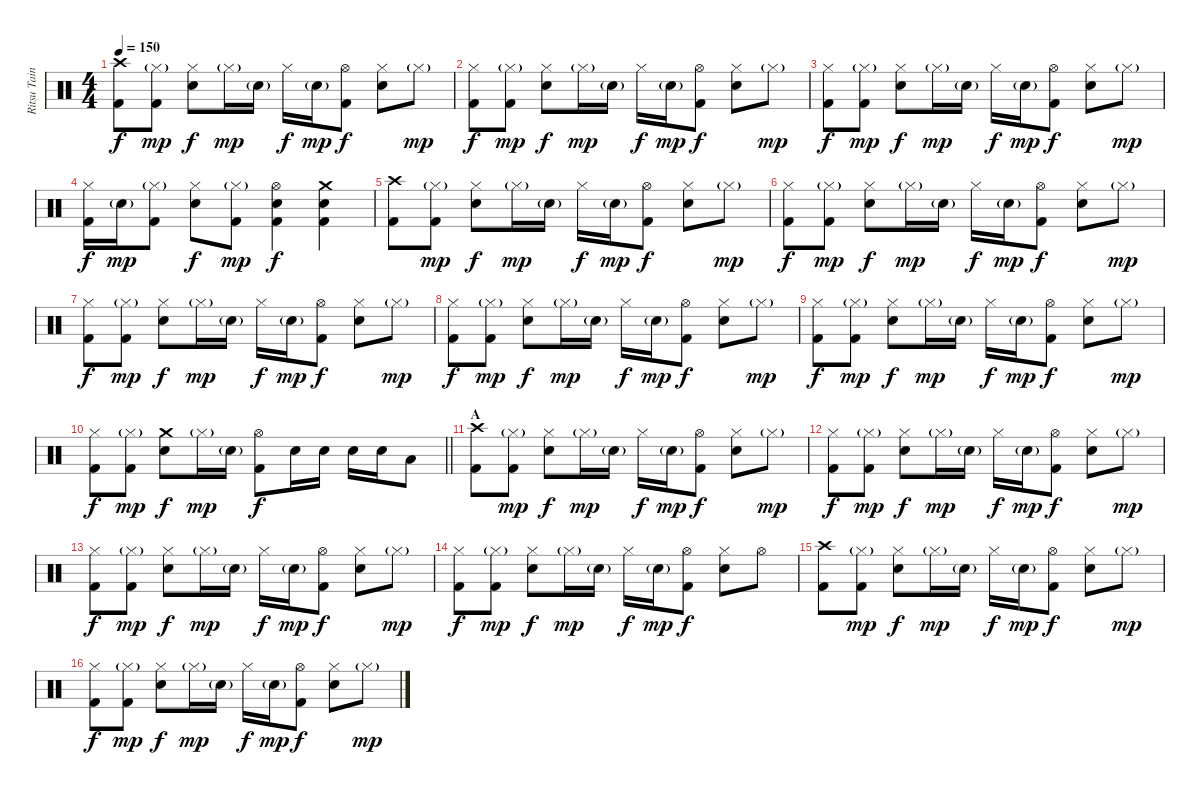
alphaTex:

\track ("Ritsu Tainaka" "Ritsu Tain") {instrument percussion}
\staff {score}
\articulation defaults
\ts (4 4)
\tempo 150
\clef neutral
\ks c
("Crash high (hit)" "Kick (hit) 2").8{dy f} ("Hi-Hat (closed)"{g} "Kick (hit) 2").8{dy mp} ("Hi-Hat (closed)" "Electric Snare (hit)").8{dy f} "Hi-Hat (closed)"{g}.16{dy mp} "Electric Snare (hit)"{g}.16 "Hi-Hat (closed)".16{dy f} "Electric Snare (hit)"{g}.16{dy mp} ("Hi-Hat (open)" "Kick (hit) 2").8{dy f} ("Hi-Hat (closed)" "Electric Snare (hit)").8 "Hi-Hat (closed)"{g}.8{dy mp} |
("Hi-Hat (closed)" "Kick (hit) 2").8{dy f} ("Hi-Hat (closed)"{g} "Kick (hit) 2").8{dy mp} ("Hi-Hat (closed)" "Electric Snare (hit)").8{dy f} "Hi-Hat (closed)"{g}.16{dy mp} "Electric Snare (hit)"{g}.16 "Hi-Hat (closed)".16{dy f} "Electric Snare (hit)"{g}.16{dy mp} ("Hi-Hat (open)" "Kick (hit) 2").8{dy f} ("Hi-Hat (closed)" "Electric Snare (hit)").8 "Hi-Hat (closed)"{g}.8{dy mp} |
("Hi-Hat (closed)" "Kick (hit) 2").8{dy f} ("Hi-Hat (closed)"{g} "Kick (hit) 2").8{dy mp} ("Hi-Hat (closed)" "Electric Snare (hit)").8{dy f} "Hi-Hat (closed)"{g}.16{dy mp} "Electric Snare (hit)"{g}.16 "Hi-Hat (closed)".16{dy f} "Electric Snare (hit)"{g}.16{dy mp} ("Hi-Hat (open)" "Kick (hit) 2").8{dy f} ("Hi-Hat (closed)" "Electric Snare (hit)").8 "Hi-Hat (closed)"{g}.8{dy mp} |
("Hi-Hat (closed)" "Kick (hit) 2").16{dy f} "Electric Snare (hit)"{g}.16{dy mp} ("Hi-Hat (closed)"{g} "Kick (hit) 2").8 ("Hi-Hat (closed)" "Electric Snare (hit)").8{dy f} ("Hi-Hat (closed)"{g} "Kick (hit) 2").8{dy mp} ("Hi-Hat (open)" "Electric Snare (hit)" "Kick (hit) 2").4{dy f} ("Crash medium (hit)" "Electric Snare (hit)" "Kick (hit) 2").4 |
("Crash high (hit)" "Kick (hit) 2").8 ("Hi-Hat (closed)"{g} "Kick (hit) 2").8{dy mp} ("Hi-Hat (closed)" "Electric Snare (hit)").8{dy f} "Hi-Hat (closed)"{g}.16{dy mp} "Electric Snare (hit)"{g}.16 "Hi-Hat (closed)".16{dy f} "Electric Snare (hit)"{g}.16{dy mp} ("Hi-Hat (open)" "Kick (hit) 2").8{dy f} ("Hi-Hat (closed)" "Electric Snare (hit)").8 "Hi-Hat (closed)"{g}.8{dy mp} |
("Hi-Hat (closed)" "Kick (hit) 2").8{dy f} ("Hi-Hat (closed)"{g} "Kick (hit) 2").8{dy mp} ("Hi-Hat (closed)" "Electric Snare (hit)").8{dy f} "Hi-Hat (closed)"{g}.16{dy mp} "Electric Snare (hit)"{g}.16 "Hi-Hat (closed)".16{dy f} "Electric Snare (hit)"{g}.16{dy mp} ("Hi-Hat (open)" "Kick (hit) 2").8{dy f} ("Hi-Hat (closed)" "Electric Snare (hit)").8 "Hi-Hat (closed)"{g}.8{dy mp} |
("Hi-Hat (closed)" "Kick (hit) 2").8{dy f} ("Hi-Hat (closed)"{g} "Kick (hit) 2").8{dy mp} ("Hi-Hat (closed)" "Electric Snare (hit)").8{dy f} "Hi-Hat (closed)"{g}.16{dy mp} "Electric Snare (hit)"{g}.16 "Hi-Hat (closed)".16{dy f} "Electric Snare (hit)"{g}.16{dy mp} ("Hi-Hat (open)" "Kick (hit) 2").8{dy f} ("Hi-Hat (closed)" "Electric Snare (hit)").8 "Hi-Hat (closed)"{g}.8{dy mp} |
("Hi-Hat (closed)" "Kick (hit) 2").8{dy f} ("Hi-Hat (closed)"{g} "Kick (hit) 2").8{dy mp} ("Hi-Hat (closed)" "Electric Snare (hit)").8{dy f} "Hi-Hat (closed)"{g}.16{dy mp} "Electric Snare (hit)"{g}.16 "Hi-Hat (closed)".16{dy f} "Electric Snare (hit)"{g}.16{dy mp} ("Hi-Hat (open)" "Kick (hit) 2").8{dy f} ("Hi-Hat (closed)" "Electric Snare (hit)").8 "Hi-Hat (closed)"{g}.8{dy mp} |
("Hi-Hat (closed)" "Kick (hit) 2").8{dy f} ("Hi-Hat (closed)"{g} "Kick (hit) 2").8{dy mp} ("Hi-Hat (closed)" "Electric Snare (hit)").8{dy f} "Hi-Hat (closed)"{g}.16{dy mp} "Electric Snare (hit)"{g}.16 "Hi-Hat (closed)".16{dy f} "Electric Snare (hit)"{g}.16{dy mp} ("Hi-Hat (open)" "Kick (hit) 2").8{dy f} ("Hi-Hat (closed)" "Electric Snare (hit)").8 "Hi-Hat (closed)"{g}.8{dy mp} |
\barLineRight lightlight
("Hi-Hat (closed)" "Kick (hit) 2").8{dy f} ("Hi-Hat (closed)"{g} "Kick (hit) 2").8{dy mp} ("Crash medium (hit)" "Electric Snare (hit)").8{dy f} "Hi-Hat (closed)"{g}.16{dy mp} "Electric Snare (hit)"{g}.16 ("Hi-Hat (open)" "Kick (hit) 2").8{dy f} "Electric Snare (hit)".16 "Electric Snare (hit)".16 "Electric Snare (hit)".16 "Electric Snare (hit)".16 "Low Tom (hit)".8 |
\section ("" "A")
("Crash high (hit)" "Kick (hit) 2").8 ("Hi-Hat (closed)"{g} "Kick (hit) 2").8{dy mp} ("Hi-Hat (closed)" "Electric Snare (hit)").8{dy f} "Hi-Hat (closed)"{g}.16{dy mp} "Electric Snare (hit)"{g}.16 "Hi-Hat (closed)".16{dy f} "Electric Snare (hit)"{g}.16{dy mp} ("Hi-Hat (open)" "Kick (hit) 2").8{dy f} ("Hi-Hat (closed)" "Electric Snare (hit)").8 "Hi-Hat (closed)"{g}.8{dy mp} |
("Hi-Hat (closed)" "Kick (hit) 2").8{dy f} ("Hi-Hat (closed)"{g} "Kick (hit) 2").8{dy mp} ("Hi-Hat (closed)" "Electric Snare (hit)").8{dy f} "Hi-Hat (closed)"{g}.16{dy mp} "Electric Snare (hit)"{g}.16 "Hi-Hat (closed)".16{dy f} "Electric Snare (hit)"{g}.16{dy mp} ("Hi-Hat (open)" "Kick (hit) 2").8{dy f} ("Hi-Hat (closed)" "Electric Snare (hit)").8 "Hi-Hat (closed)"{g}.8{dy mp} |
("Hi-Hat (closed)" "Kick (hit) 2").8{dy f} ("Hi-Hat (closed)"{g} "Kick (hit) 2").8{dy mp} ("Hi-Hat (closed)" "Electric Snare (hit)").8{dy f} "Hi-Hat (closed)"{g}.16{dy mp} "Electric Snare (hit)"{g}.16 "Hi-Hat (closed)".16{dy f} "Electric Snare (hit)"{g}.16{dy mp} ("Hi-Hat (open)" "Kick (hit) 2").8{dy f} ("Hi-Hat (closed)" "Electric Snare (hit)").8 "Hi-Hat (closed)"{g}.8{dy mp} |
("Hi-Hat (closed)" "Kick (hit) 2").8{dy f} ("Hi-Hat (closed)"{g} "Kick (hit) 2").8{dy mp} ("Hi-Hat (closed)" "Electric Snare (hit)").8{dy f} "Hi-Hat (closed)"{g}.16{dy mp} "Electric Snare (hit)"{g}.16 "Hi-Hat (closed)".16{dy f} "Electric Snare (hit)"{g}.16{dy mp} ("Hi-Hat (open)" "Kick (hit) 2").8{dy f} ("Hi-Hat (closed)" "Electric Snare (hit)").8 "Hi-Hat (open)".8 |
("Crash high (hit)" "Kick (hit) 2").8 ("Hi-Hat (closed)"{g} "Kick (hit) 2").8{dy mp} ("Hi-Hat (closed)" "Electric Snare (hit)").8{dy f} "Hi-Hat (closed)"{g}.16{dy mp} "Electric Snare (hit)"{g}.16 "Hi-Hat (closed)".16{dy f} "Electric Snare (hit)"{g}.16{dy mp} ("Hi-Hat (open)" "Kick (hit) 2").8{dy f} ("Hi-Hat (closed)" "Electric Snare (hit)").8 "Hi-Hat (closed)"{g}.8{dy mp} |
("Hi-Hat (closed)" "Kick (hit) 2").8{dy f} ("Hi-Hat (closed)"{g} "Kick (hit) 2").8{dy mp} ("Hi-Hat (closed)" "Electric Snare (hit)").8{dy f} "Hi-Hat (closed)"{g}.16{dy mp} "Electric Snare (hit)"{g}.16 "Hi-Hat (closed)".16{dy f} "Electric Snare (hit)"{g}.16{dy mp} ("Hi-Hat (open)" "Kick (hit) 2").8{dy f} ("Hi-Hat (closed)" "Electric Snare (hit)").8 "Hi-Hat (closed)"{g}.8{dy mp}
